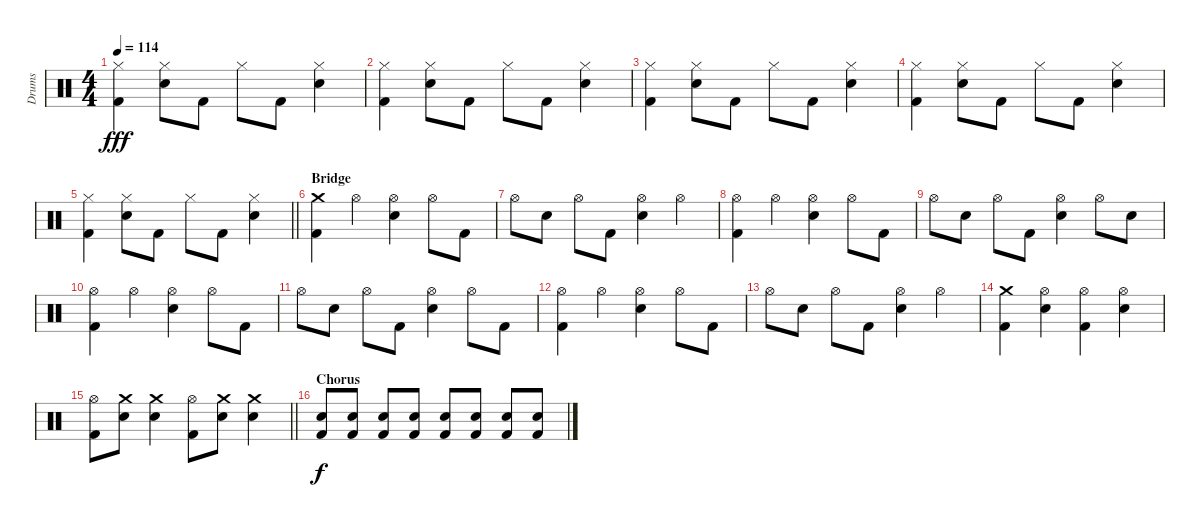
\track ("Drums" "Drums") {instrument percussion}
\staff {score}
\articulation defaults
\ts (4 4)
\tempo 114
\clef neutral
\ks c
("Hi-Hat (closed)" "Kick (hit) 2").4{dy fff} ("Hi-Hat (closed)" "Snare (hit) 2").8 "Kick (hit) 2".8 "Hi-Hat (closed)".8 "Kick (hit) 2".8 ("Hi-Hat (closed)" "Snare (hit) 2").4 |
("Hi-Hat (closed)" "Kick (hit) 2").4 ("Hi-Hat (closed)" "Snare (hit) 2").8 "Kick (hit) 2".8 "Hi-Hat (closed)".8 "Kick (hit) 2".8 ("Hi-Hat (closed)" "Snare (hit) 2").4 |
("Hi-Hat (closed)" "Kick (hit) 2").4 ("Hi-Hat (closed)" "Snare (hit) 2").8 "Kick (hit) 2".8 "Hi-Hat (closed)".8 "Kick (hit) 2".8 ("Hi-Hat (closed)" "Snare (hit) 2").4 |
("Hi-Hat (closed)" "Kick (hit) 2").4 ("Hi-Hat (closed)" "Snare (hit) 2").8 "Kick (hit) 2".8 "Hi-Hat (closed)".8 "Kick (hit) 2".8 ("Hi-Hat (closed)" "Snare (hit) 2").4 |
\barLineRight lightlight
("Hi-Hat (closed)" "Kick (hit) 2").4 ("Hi-Hat (closed)" "Snare (hit) 2").8 "Kick (hit) 2".8 "Hi-Hat (closed)".8 "Kick (hit) 2".8 ("Hi-Hat (closed)" "Snare (hit) 2").4 |
\section ("" "Bridge")
("Crash medium (hit)" "Kick (hit) 2").4 "Hi-Hat (open)".4 ("Hi-Hat (open)" "Snare (hit) 2").4 "Hi-Hat (open)".8 "Kick (hit) 2".8 |
"Hi-Hat (open)".8 "Snare (hit) 2".8 "Hi-Hat (open)".8 "Kick (hit) 2".8 ("Hi-Hat (open)" "Snare (hit) 2").4 "Hi-Hat (open)".4 |
("Hi-Hat (open)" "Kick (hit) 2").4 "Hi-Hat (open)".4 ("Hi-Hat (open)" "Snare (hit) 2").4 "Hi-Hat (open)".8 "Kick (hit) 2".8 |
"Hi-Hat (open)".8 "Snare (hit) 2".8 "Hi-Hat (open)".8 "Kick (hit) 2".8 ("Hi-Hat (open)" "Snare (hit) 2").4 "Hi-Hat (open)".8 "Snare (hit) 2".8 |
("Hi-Hat (open)" "Kick (hit) 2").4 "Hi-Hat (open)".4 ("Hi-Hat (open)" "Snare (hit) 2").4 "Hi-Hat (open)".8 "Kick (hit) 2".8 |
"Hi-Hat (open)".8 "Snare (hit) 2".8 "Hi-Hat (open)".8 "Kick (hit) 2".8 ("Hi-Hat (open)" "Snare (hit) 2").4 "Hi-Hat (open)".8 "Kick (hit) 2".8 |
("Hi-Hat (open)" "Kick (hit) 2").4 "Hi-Hat (open)".4 ("Hi-Hat (open)" "Snare (hit) 2").4 "Hi-Hat (open)".8 "Kick (hit) 2".8 |
"Hi-Hat (open)".8 "Snare (hit) 2".8 "Hi-Hat (open)".8 "Kick (hit) 2".8 ("Hi-Hat (open)" "Snare (hit) 2").4 "Hi-Hat (open)".4 |
("Crash medium (hit)" "Kick (hit) 2").4 ("Hi-Hat (open)" "Snare (hit) 2").4 ("Hi-Hat (open)" "Kick (hit) 2").4 ("Hi-Hat (open)" "Snare (hit) 2").4 |
\barLineRight lightlight
("Hi-Hat (open)" "Kick (hit) 2").8 ("Crash medium (hit)" "Snare (hit) 2").8 ("Crash medium (hit)" "Snare (hit) 2").4 ("Hi-Hat (open)" "Kick (hit) 2").8 ("Crash medium (hit)" "Snare (hit) 2").8 ("Crash medium (hit)" "Snare (hit) 2").4 |
\section ("" "Chorus")
("Snare (hit) 2" "Kick (hit) 2").8{dy f} ("Snare (hit) 2" "Kick (hit) 2").8 ("Snare (hit) 2" "Kick (hit) 2").8 ("Snare (hit) 2" "Kick (hit) 2").8 ("Snare (hit) 2" "Kick (hit) 2").8 ("Snare (hit) 2" "Kick (hit) 2").8 ("Snare (hit) 2" "Kick (hit) 2").8 ("Snare (hit) 2" "Kick (hit) 2").8
